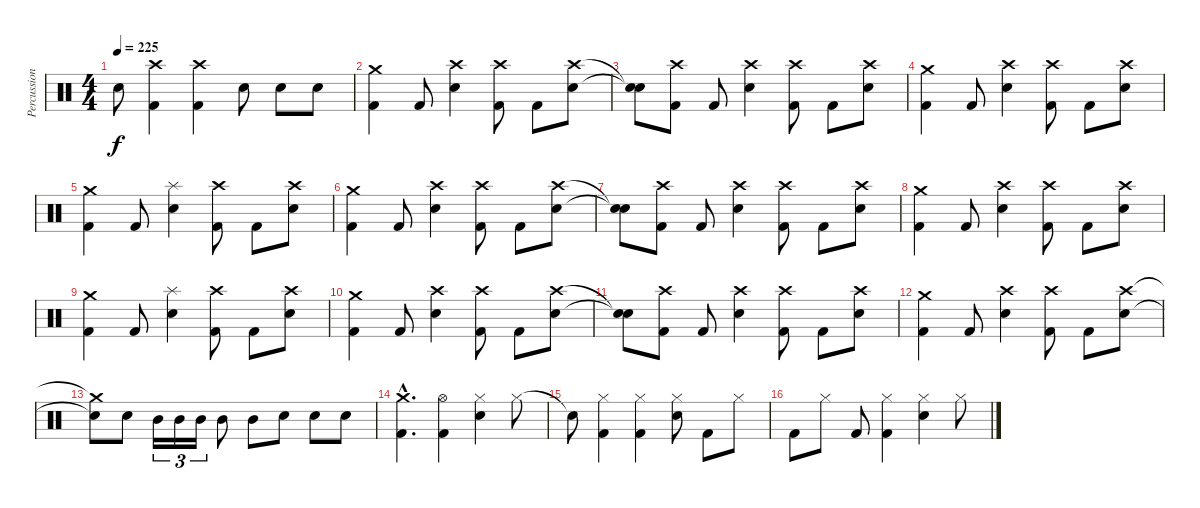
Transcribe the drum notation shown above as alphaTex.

\track ("Percussion" "Percussion") {instrument percussion}
\staff {score}
\articulation defaults
\ts (4 4)
\tempo 225
\clef neutral
\ks c "Snare (hit)"{t}.8{dy f}
("Crash high (hit)" "Kick (hit) 2").4 ("Crash high (hit)" "Kick (hit) 2").4 "Snare (hit) 2".8 "Snare (hit) 2".8 "Snare (hit) 2".8 |
("Crash medium (hit)" "Kick (hit) 2").4 "Kick (hit) 2".8 ("Crash high (hit)" "Snare (hit) 2").4 ("Crash high (hit)" "Kick (hit) 2").8 "Kick (hit) 2".8 ("Crash high (hit)" "Snare (hit) 2").8 |
("Snare (hit)"{t} "Snare (hit)"{t}).8 ("Crash high (hit)" "Kick (hit) 2").8 "Kick (hit) 2".8 ("Crash high (hit)" "Snare (hit) 2").4 ("Crash high (hit)" "Kick (hit) 2").8 "Kick (hit) 2".8 ("Crash high (hit)" "Snare (hit) 2").8 |
("Crash medium (hit)" "Kick (hit) 2").4 "Kick (hit) 2".8 ("Crash high (hit)" "Snare (hit) 2").4 ("Crash high (hit)" "Kick (hit) 2").8 "Kick (hit) 2".8 ("Crash high (hit)" "Snare (hit) 2").8 |
("Crash medium (hit)" "Kick (hit) 2").4 "Kick (hit) 2".8 ("Splash (hit)" "Snare (hit) 2").4 ("Crash high (hit)" "Kick (hit) 2").8 "Kick (hit) 2".8 ("Crash high (hit)" "Snare (hit) 2").8 |
("Crash medium (hit)" "Kick (hit) 2").4 "Kick (hit) 2".8 ("Crash high (hit)" "Snare (hit) 2").4 ("Crash high (hit)" "Kick (hit) 2").8 "Kick (hit) 2".8 ("Crash high (hit)" "Snare (hit) 2").8 |
("Snare (hit)"{t} "Snare (hit)"{t}).8 ("Crash high (hit)" "Kick (hit) 2").8 "Kick (hit) 2".8 ("Crash high (hit)" "Snare (hit) 2").4 ("Crash high (hit)" "Kick (hit) 2").8 "Kick (hit) 2".8 ("Crash high (hit)" "Snare (hit) 2").8 |
("Crash medium (hit)" "Kick (hit) 2").4 "Kick (hit) 2".8 ("Crash high (hit)" "Snare (hit) 2").4 ("Crash high (hit)" "Kick (hit) 2").8 "Kick (hit) 2".8 ("Crash high (hit)" "Snare (hit) 2").8 |
("Crash medium (hit)" "Kick (hit) 2").4 "Kick (hit) 2".8 ("Splash (hit)" "Snare (hit) 2").4 ("Crash high (hit)" "Kick (hit) 2").8 "Kick (hit) 2".8 ("Crash high (hit)" "Snare (hit) 2").8 |
("Crash medium (hit)" "Kick (hit) 2").4 "Kick (hit) 2".8 ("Crash high (hit)" "Snare (hit) 2").4 ("Crash high (hit)" "Kick (hit) 2").8 "Kick (hit) 2".8 ("Crash high (hit)" "Snare (hit) 2").8 |
("Snare (hit)"{t} "Snare (hit)"{t}).8 ("Crash high (hit)" "Kick (hit) 2").8 "Kick (hit) 2".8 ("Crash high (hit)" "Snare (hit) 2").4 ("Crash high (hit)" "Kick (hit) 2").8 "Kick (hit) 2".8 ("Crash high (hit)" "Snare (hit) 2").8 |
("Crash medium (hit)" "Kick (hit) 2").4 "Kick (hit) 2".8 ("Crash high (hit)" "Snare (hit) 2").4 ("Crash high (hit)" "Kick (hit) 2").8 "Kick (hit) 2".8 ("Crash high (hit)" "Snare (hit) 2").8 |
("Crash medium (hit)"{t} "Snare (hit) 2"{t}).8 "Snare (hit) 2".8 "Mid Tom (hit)".16{tu (3 2)} "Mid Tom (hit)".16{tu (3 2)} "Mid Tom (hit)".16{tu (3 2)} "Mid Tom (hit)".8 "Mid Tom (hit)".8 "Snare (hit) 2".8 "Snare (hit) 2".8 "Snare (hit) 2".8 |
("Crash medium (hit)"{hac} "Kick (hit) 2"{hac}).4{d} ("Hi-Hat (open)" "Kick (hit) 2").4 ("Hi-Hat (closed)" "Snare (hit) 2").4 "Hi-Hat (closed)".8 |
"Snare (hit)"{t}.8 ("Hi-Hat (closed)" "Kick (hit) 2").4 ("Hi-Hat (closed)" "Kick (hit) 2").4 ("Hi-Hat (closed)" "Snare (hit) 2").8 "Kick (hit) 2".8 "Hi-Hat (closed)".8 |
"Kick (hit) 2".8 "Hi-Hat (closed)".8 "Kick (hit) 2".8 ("Hi-Hat (closed)" "Kick (hit) 2").4 ("Hi-Hat (closed)" "Snare (hit) 2").4 "Hi-Hat (closed)".8
